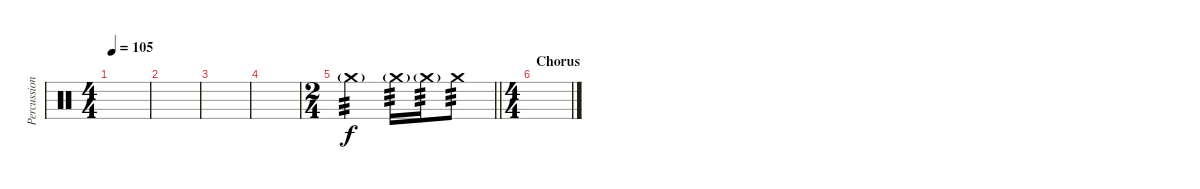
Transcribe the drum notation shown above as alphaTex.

\track ("Percussion" "Percussion") {instrument percussion}
\staff {score}
\articulation defaults
\ts (4 4)
\tempo 105
\clef neutral
\ks c
|
|
|
|
\ts (2 4)
\barLineRight lightlight "Crash medium (hit)"{g}.4{tp 3} "Crash medium (hit)"{g}.16{tp 3} "Crash medium (hit)"{g}.16{tp 3} "Crash medium (hit)".8{tp 3 dy f}
|
\ts (4 4)
\section ("" "Chorus")
